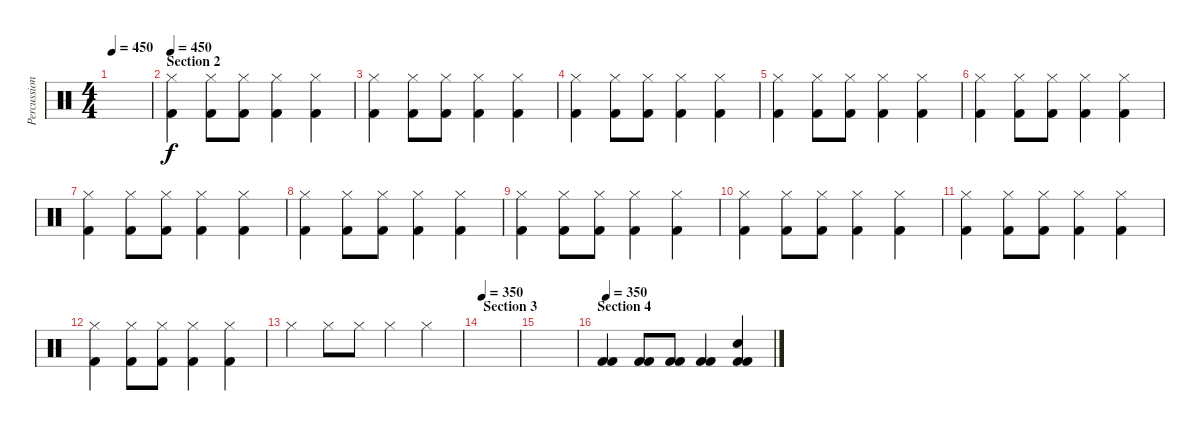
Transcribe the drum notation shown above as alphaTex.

\track ("Percussions" "Percussion") {instrument percussion}
\staff {score}
\articulation defaults
\ts (4 4)
\tempo 450
\clef neutral
\ks c
|
\section ("" "Section 2")
\tempo 450
("Hi-Hat (closed)" "Kick (hit) 2").4 ("Hi-Hat (closed)" "Kick (hit) 2").8 ("Hi-Hat (closed)" "Kick (hit) 2").8 ("Hi-Hat (closed)" "Kick (hit) 2").4 ("Hi-Hat (closed)" "Kick (hit) 2").4 |
("Hi-Hat (closed)" "Kick (hit) 2").4 ("Hi-Hat (closed)" "Kick (hit) 2").8 ("Hi-Hat (closed)" "Kick (hit) 2").8 ("Hi-Hat (closed)" "Kick (hit) 2").4 ("Hi-Hat (closed)" "Kick (hit) 2").4 |
("Hi-Hat (closed)" "Kick (hit) 2").4 ("Hi-Hat (closed)" "Kick (hit) 2").8 ("Hi-Hat (closed)" "Kick (hit) 2").8 ("Hi-Hat (closed)" "Kick (hit) 2").4 ("Hi-Hat (closed)" "Kick (hit) 2").4 |
("Hi-Hat (closed)" "Kick (hit) 2").4 ("Hi-Hat (closed)" "Kick (hit) 2").8 ("Hi-Hat (closed)" "Kick (hit) 2").8 ("Hi-Hat (closed)" "Kick (hit) 2").4 ("Hi-Hat (closed)" "Kick (hit) 2").4 |
("Hi-Hat (closed)" "Kick (hit) 2").4 ("Hi-Hat (closed)" "Kick (hit) 2").8 ("Hi-Hat (closed)" "Kick (hit) 2").8 ("Hi-Hat (closed)" "Kick (hit) 2").4 ("Hi-Hat (closed)" "Kick (hit) 2").4 |
("Hi-Hat (closed)" "Kick (hit) 2").4 ("Hi-Hat (closed)" "Kick (hit) 2").8 ("Hi-Hat (closed)" "Kick (hit) 2").8 ("Hi-Hat (closed)" "Kick (hit) 2").4 ("Hi-Hat (closed)" "Kick (hit) 2").4 |
("Hi-Hat (closed)" "Kick (hit) 2").4 ("Hi-Hat (closed)" "Kick (hit) 2").8 ("Hi-Hat (closed)" "Kick (hit) 2").8 ("Hi-Hat (closed)" "Kick (hit) 2").4 ("Hi-Hat (closed)" "Kick (hit) 2").4 |
("Hi-Hat (closed)" "Kick (hit) 2").4 ("Hi-Hat (closed)" "Kick (hit) 2").8 ("Hi-Hat (closed)" "Kick (hit) 2").8 ("Hi-Hat (closed)" "Kick (hit) 2").4 ("Hi-Hat (closed)" "Kick (hit) 2").4 |
("Hi-Hat (closed)" "Kick (hit) 2").4 ("Hi-Hat (closed)" "Kick (hit) 2").8 ("Hi-Hat (closed)" "Kick (hit) 2").8 ("Hi-Hat (closed)" "Kick (hit) 2").4 ("Hi-Hat (closed)" "Kick (hit) 2").4 |
("Hi-Hat (closed)" "Kick (hit) 2").4 ("Hi-Hat (closed)" "Kick (hit) 2").8 ("Hi-Hat (closed)" "Kick (hit) 2").8 ("Hi-Hat (closed)" "Kick (hit) 2").4 ("Hi-Hat (closed)" "Kick (hit) 2").4 |
("Hi-Hat (closed)" "Kick (hit) 2").4 ("Hi-Hat (closed)" "Kick (hit) 2").8 ("Hi-Hat (closed)" "Kick (hit) 2").8 ("Hi-Hat (closed)" "Kick (hit) 2").4 ("Hi-Hat (closed)" "Kick (hit) 2").4 |
"Hi-Hat (closed)".4 "Hi-Hat (closed)".8 "Hi-Hat (closed)".8 "Hi-Hat (closed)".4 "Hi-Hat (closed)".4 |
\section ("" "Section 3")
\tempo 350
|
|
\section ("" "Section 4")
\tempo 350
("Kick (hit) 2" "Kick (hit) 2").4 ("Kick (hit) 2" "Kick (hit) 2").8 ("Kick (hit) 2" "Kick (hit) 2").8 ("Kick (hit) 2" "Kick (hit) 2").4 ("Kick (hit) 2" "Kick (hit) 2" "Snare (hit) 2").4
